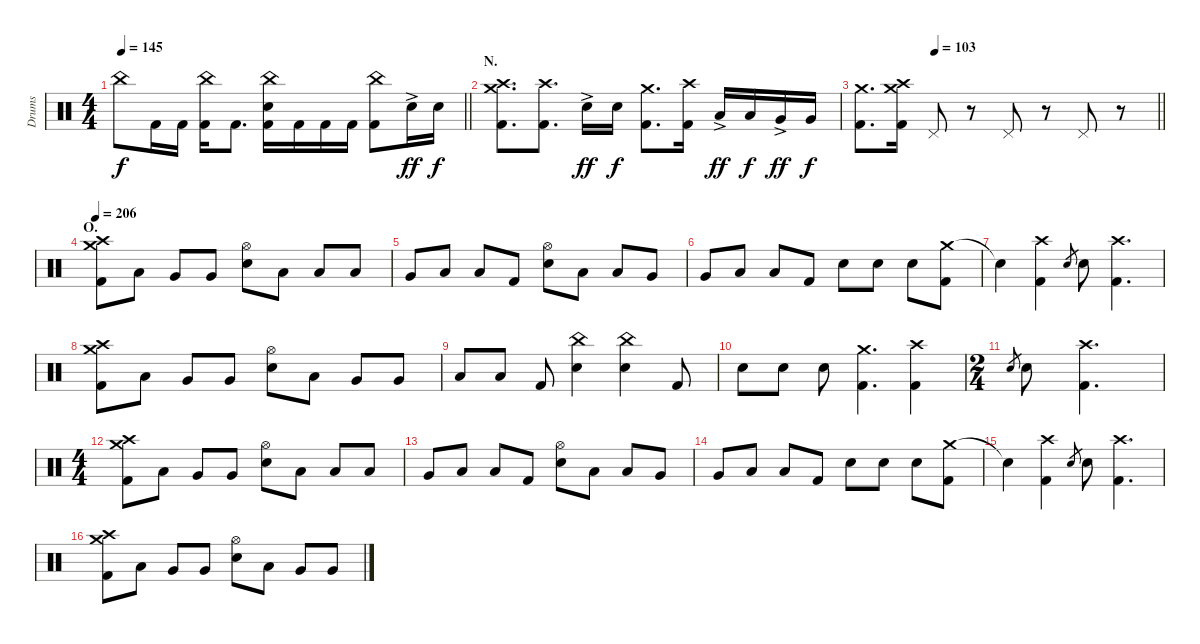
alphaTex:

\track ("Drums" "Drums") {instrument percussion}
\staff {score}
\articulation defaults
\ts (4 4)
\tempo 145
\clef neutral
\barLineRight lightlight
\ks c "China (hit)".8{dy f} "Kick (hit) 2".16 "Kick (hit) 2".16
("China (hit)" "Kick (hit) 2").16 "Kick (hit) 2".8{d} ("China (hit)" "Electric Snare (hit)" "Kick (hit) 2").16 "Kick (hit) 2".16 "Kick (hit) 2".16 "Kick (hit) 2".16 ("China (hit)" "Kick (hit) 2").8 "Electric Snare (hit)"{ac}.16{dy ff} "Electric Snare (hit)".16{dy f} |
\section ("" "N.")
("Crash medium (hit)" "Crash high (hit)" "Kick (hit) 2").8{d} ("Crash high (hit)" "Kick (hit) 2").8{d} "Electric Snare (hit)"{ac}.16{dy ff} "Electric Snare (hit)".16{dy f} ("Crash medium (hit)" "Kick (hit) 2").8{d} ("Crash high (hit)" "Kick (hit) 2").16 "Low Tom (hit)"{ac}.16{dy ff} "Low Tom (hit)".16{dy f} "Very Low Tom (hit)"{ac}.16{dy ff} "Very Low Tom (hit)".16{dy f} |
\tempo (103 0.25)
\barLineRight lightlight
("Crash medium (hit)" "Kick (hit) 2").8{d} ("Crash medium (hit)" "Crash high (hit)" "Kick (hit) 2").16 "Pedal Hi-Hat (hit)".8 r.8 "Pedal Hi-Hat (hit)".8 r.8 "Pedal Hi-Hat (hit)".8 r.8 |
\section ("" "O.")
\tempo 206
("Crash medium (hit)" "Crash high (hit)" "Kick (hit) 2").8 "Low Tom (hit)".8 "Very Low Tom (hit)".8 "Very Low Tom (hit)".8 ("Hi-Hat (open)" "Electric Snare (hit)").8 "Low Tom (hit)".8 "Low Tom (hit)".8 "Low Tom (hit)".8 |
"Very Low Tom (hit)".8 "Low Floor Tom (hit)".8 "Low Floor Tom (hit)".8 "Kick (hit) 2".8 ("Hi-Hat (open)" "Electric Snare (hit)").8 "Low Tom (hit)".8 "Low Tom (hit)".8 "Very Low Tom (hit)".8 |
"Very Low Tom (hit)".8 "Low Floor Tom (hit)".8 "Low Floor Tom (hit)".8 "Kick (hit) 2".8 "Electric Snare (hit)".8 "Electric Snare (hit)".8 "Electric Snare (hit)".8 ("Crash medium (hit)" "Kick (hit) 2").8 |
"Snare (hit)"{t}.4 ("Crash high (hit)" "Kick (hit) 2").4 "Electric Snare (hit)".8{gr} "Electric Snare (hit)".8 ("Crash high (hit)" "Kick (hit) 2").4{d} |
("Crash medium (hit)" "Crash high (hit)" "Kick (hit) 2").8 "Low Tom (hit)".8 "Very Low Tom (hit)".8 "Very Low Tom (hit)".8 ("Hi-Hat (open)" "Electric Snare (hit)").8 "Low Tom (hit)".8 "Very Low Tom (hit)".8 "Very Low Tom (hit)".8 |
"Low Floor Tom (hit)".8 "Low Floor Tom (hit)".8 "Kick (hit) 2".8 ("China (hit)" "Electric Snare (hit)").4 ("China (hit)" "Electric Snare (hit)").4 "Kick (hit) 2".8 |
"Electric Snare (hit)".8 "Electric Snare (hit)".8 "Electric Snare (hit)".8 ("Crash medium (hit)" "Kick (hit) 2").4{d} ("Crash high (hit)" "Kick (hit) 2").4 |
\ts (2 4)
"Electric Snare (hit)".8{gr} "Electric Snare (hit)".8 ("Crash high (hit)" "Kick (hit) 2").4{d} |
\ts (4 4)
("Crash medium (hit)" "Crash high (hit)" "Kick (hit) 2").8 "Low Tom (hit)".8 "Very Low Tom (hit)".8 "Very Low Tom (hit)".8 ("Hi-Hat (open)" "Electric Snare (hit)").8 "Low Tom (hit)".8 "Low Tom (hit)".8 "Low Tom (hit)".8 |
"Very Low Tom (hit)".8 "Low Floor Tom (hit)".8 "Low Floor Tom (hit)".8 "Kick (hit) 2".8 ("Hi-Hat (open)" "Electric Snare (hit)").8 "Low Tom (hit)".8 "Low Tom (hit)".8 "Very Low Tom (hit)".8 |
"Very Low Tom (hit)".8 "Low Floor Tom (hit)".8 "Low Floor Tom (hit)".8 "Kick (hit) 2".8 "Electric Snare (hit)".8 "Electric Snare (hit)".8 "Electric Snare (hit)".8 ("Crash medium (hit)" "Kick (hit) 2").8 |
"Snare (hit)"{t}.4 ("Crash high (hit)" "Kick (hit) 2").4 "Electric Snare (hit)".8{gr} "Electric Snare (hit)".8 ("Crash high (hit)" "Kick (hit) 2").4{d} |
("Crash medium (hit)" "Crash high (hit)" "Kick (hit) 2").8 "Low Tom (hit)".8 "Very Low Tom (hit)".8 "Very Low Tom (hit)".8 ("Hi-Hat (open)" "Electric Snare (hit)").8 "Low Tom (hit)".8 "Very Low Tom (hit)".8 "Very Low Tom (hit)".8
